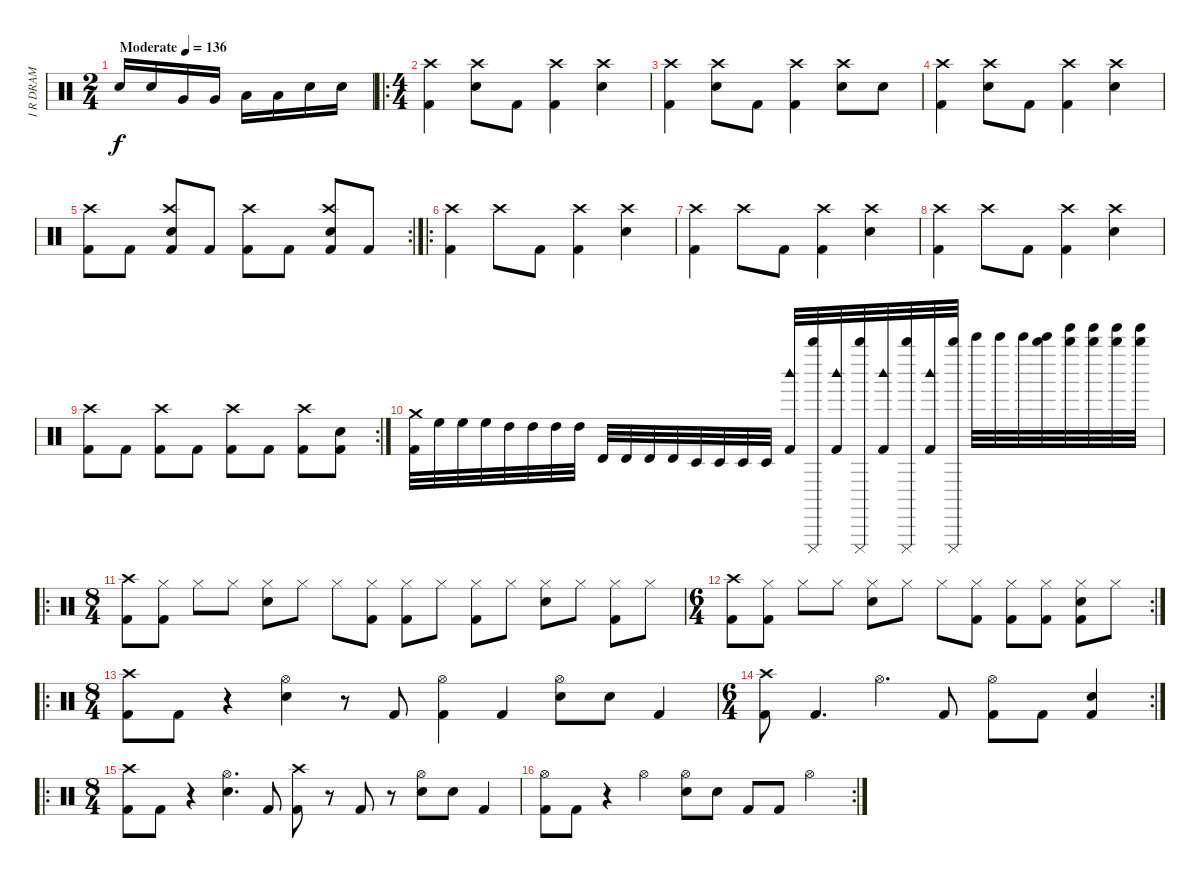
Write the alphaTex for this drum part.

\track ("I R DRAM" "I R DRAM") {instrument percussion}
\staff {score}
\articulation defaults
\ts (2 4)
\tempo (136 "Moderate")
\clef neutral
\ks c "Electric Snare (hit)".16{dy f} "Electric Snare (hit)".16 "Very Low Tom (hit)".16 "Very Low Tom (hit)".16 "Low Tom (hit)".16 "Low Tom (hit)".16 "Electric Snare (hit)".16 "Electric Snare (hit)".16
|
\ro
\ts (4 4)
("Crash high (hit)" "Kick (hit) 2").4 ("Crash high (hit)" "Electric Snare (hit)").8 "Kick (hit) 2".8 ("Crash high (hit)" "Kick (hit) 2").4 ("Crash high (hit)" "Electric Snare (hit)").4 |
("Crash high (hit)" "Kick (hit) 2").4 ("Crash high (hit)" "Electric Snare (hit)").8 "Kick (hit) 2".8 ("Crash high (hit)" "Kick (hit) 2").4 ("Crash high (hit)" "Electric Snare (hit)").8 "Electric Snare (hit)".8 |
("Crash high (hit)" "Kick (hit) 2").4 ("Crash high (hit)" "Electric Snare (hit)").8 "Kick (hit) 2".8 ("Crash high (hit)" "Kick (hit) 2").4 ("Crash high (hit)" "Electric Snare (hit)").4 |
\rc 2
("Crash high (hit)" "Kick (hit) 2").8 "Kick (hit) 2".8 ("Crash high (hit)" "Electric Snare (hit)" "Kick (hit) 2").8 "Kick (hit) 2".8 ("Crash high (hit)" "Kick (hit) 2").8 "Kick (hit) 2".8 ("Crash high (hit)" "Electric Snare (hit)" "Kick (hit) 2").8 "Kick (hit) 2".8 |
\ro
("Crash high (hit)" "Kick (hit) 2").4 "Crash high (hit)".8 "Kick (hit) 2".8 ("Crash high (hit)" "Kick (hit) 2").4 ("Crash high (hit)" "Electric Snare (hit)").4 |
("Crash high (hit)" "Kick (hit) 2").4 "Crash high (hit)".8 "Kick (hit) 2".8 ("Crash high (hit)" "Kick (hit) 2").4 ("Crash high (hit)" "Electric Snare (hit)").4 |
("Crash high (hit)" "Kick (hit) 2").4 "Crash high (hit)".8 "Kick (hit) 2".8 ("Crash high (hit)" "Kick (hit) 2").4 ("Crash high (hit)" "Electric Snare (hit)").4 |
\rc 2
("Crash high (hit)" "Kick (hit) 2").8 "Kick (hit) 2".8 ("Crash high (hit)" "Kick (hit) 2").8 "Kick (hit) 2".8 ("Crash high (hit)" "Kick (hit) 2").8 "Kick (hit) 2".8 ("Crash high (hit)" "Kick (hit) 2").8 ("Electric Snare (hit)" "Kick (hit) 2").8 |
("Crash medium (hit)" "Kick (hit) 2").32 "High Floor Tom (hit)".32 "High Floor Tom (hit)".32 "High Floor Tom (hit)".32 "High Tom (hit)".32 "High Tom (hit)".32 "High Tom (hit)".32 "High Tom (hit)".32 "Timbale high (hit)".32 "Timbale high (hit)".32 "Timbale high (hit)".32 "Timbale high (hit)".32 "Timbale low (hit)".32 "Timbale low (hit)".32 "Timbale low (hit)".32 "Timbale low (hit)".32 ("Woodblock high (hit)" "Kick (hit) 2").32 ("Whistle high (hit)" "Cuica (mute)").32 ("Woodblock high (hit)" "Kick (hit) 2").32 ("Whistle high (hit)" "Cuica (mute)").32 ("Woodblock high (hit)" "Kick (hit) 2").32 ("Whistle high (hit)" "Cuica (mute)").32 ("Woodblock high (hit)" "Kick (hit) 2").32 ("Whistle high (hit)" "Cuica (mute)").32 "Bell Tree (hit)".32 "Bell Tree (hit)".32 "Bell Tree (hit)".32 ("Whistle high (hit)" "Bell Tree (hit)").32 ("Whistle high (hit)" "Tinkle Bell (hit)").32 ("Whistle high (hit)" "Tinkle Bell (hit)").32 ("Whistle high (hit)" "Tinkle Bell (hit)").32 ("Whistle high (hit)" "Tinkle Bell (hit)").32 |
\ro
\ts (8 4)
("Crash high (hit)" "Kick (hit) 2").8 ("Hi-Hat (closed)" "Kick (hit) 2").8 "Hi-Hat (closed)".8 "Hi-Hat (closed)".8 ("Hi-Hat (closed)" "Electric Snare (hit)").8 "Hi-Hat (closed)".8 "Hi-Hat (closed)".8 ("Hi-Hat (closed)" "Kick (hit) 2").8 ("Hi-Hat (closed)" "Kick (hit) 2").8 "Hi-Hat (closed)".8 ("Hi-Hat (closed)" "Kick (hit) 2").8 "Hi-Hat (closed)".8 ("Hi-Hat (closed)" "Electric Snare (hit)").8 "Hi-Hat (closed)".8 ("Hi-Hat (closed)" "Kick (hit) 2").8 "Hi-Hat (closed)".8 |
\rc 2
\ts (6 4)
("Crash high (hit)" "Kick (hit) 2").8 ("Hi-Hat (closed)" "Kick (hit) 2").8 "Hi-Hat (closed)".8 "Hi-Hat (closed)".8 ("Hi-Hat (closed)" "Electric Snare (hit)").8 "Hi-Hat (closed)".8 "Hi-Hat (closed)".8 ("Hi-Hat (closed)" "Kick (hit) 2").8 ("Hi-Hat (closed)" "Kick (hit) 2").8 ("Hi-Hat (closed)" "Kick (hit) 2").8 ("Hi-Hat (closed)" "Electric Snare (hit)" "Kick (hit) 2").8 "Hi-Hat (closed)".8 |
\ro
\ts (8 4)
("Crash high (hit)" "Kick (hit) 2").8 "Kick (hit) 2".8 r.4 ("Hi-Hat (open)" "Electric Snare (hit)").4 r.8 "Kick (hit) 2".8 ("Hi-Hat (open)" "Kick (hit) 2").4 "Kick (hit) 2".4 ("Hi-Hat (open)" "Electric Snare (hit)").8 "Electric Snare (hit)".8 "Kick (hit) 2".4 |
\rc 2
\ts (6 4)
("Crash high (hit)" "Kick (hit) 2").8 "Kick (hit) 2".4{d} "Hi-Hat (open)".4{d} "Kick (hit) 2".8 ("Hi-Hat (open)" "Kick (hit) 2").8 "Kick (hit) 2".8 ("Electric Snare (hit)" "Kick (hit) 2").4 |
\ro
\ts (8 4)
("Crash high (hit)" "Kick (hit) 2").8 "Kick (hit) 2".8 r.4 ("Hi-Hat (open)" "Electric Snare (hit)").4{d} "Kick (hit) 2".8 ("Crash high (hit)" "Kick (hit) 2").8 r.8 "Kick (hit) 2".8 r.8 ("Hi-Hat (open)" "Electric Snare (hit)").8 "Electric Snare (hit)".8 "Kick (hit) 2".4 |
\rc 2
("Hi-Hat (open)" "Kick (hit) 2").8 "Kick (hit) 2".8 r.4 "Hi-Hat (open)".2 ("Hi-Hat (open)" "Electric Snare (hit)").8 "Electric Snare (hit)".8 "Kick (hit) 2".8 "Kick (hit) 2".8 "Hi-Hat (open)".2
